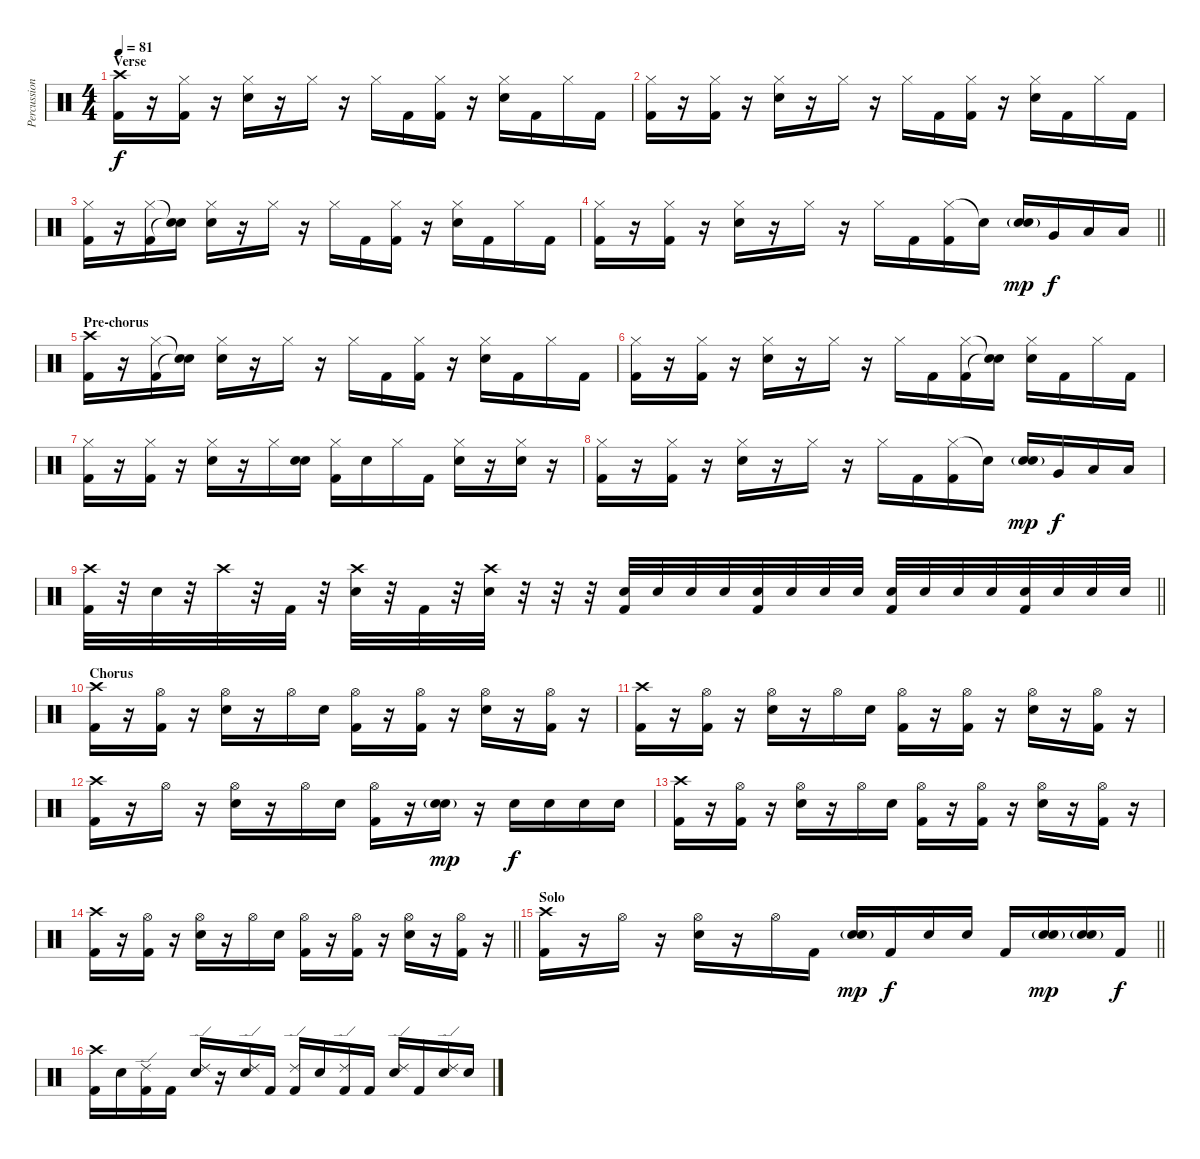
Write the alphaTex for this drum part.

\track ("Percussion" "Percussion") {instrument percussion}
\staff {score}
\articulation defaults
\ts (4 4)
\section ("" "Verse")
\tempo 81
\clef neutral
\ks c
("Crash high (hit)" "Kick (hit) 2").16{dy f} r.16 ("Hi-Hat (closed)" "Kick (hit) 2").16 r.16 ("Hi-Hat (closed)" "Snare (hit) 2").16 r.16 "Hi-Hat (closed)".16 r.16 "Hi-Hat (closed)".16 "Kick (hit) 2".16 ("Hi-Hat (closed)" "Kick (hit) 2").16 r.16 ("Hi-Hat (closed)" "Snare (hit) 2").16 "Kick (hit) 2".16 "Hi-Hat (closed)".16 "Kick (hit) 2".16 |
("Hi-Hat (closed)" "Kick (hit) 2").16 r.16 ("Hi-Hat (closed)" "Kick (hit) 2").16 r.16 ("Hi-Hat (closed)" "Snare (hit) 2").16 r.16 "Hi-Hat (closed)".16 r.16 "Hi-Hat (closed)".16 "Kick (hit) 2".16 ("Hi-Hat (closed)" "Kick (hit) 2").16 r.16 ("Hi-Hat (closed)" "Snare (hit) 2").16 "Kick (hit) 2".16 "Hi-Hat (closed)".16 "Kick (hit) 2".16 |
("Hi-Hat (closed)" "Kick (hit) 2").16 r.16 ("Hi-Hat (closed)" "Kick (hit) 2").16 ("Snare (hit)"{t} "Snare (hit)"{t}).16 ("Hi-Hat (closed)" "Snare (hit) 2").16 r.16 "Hi-Hat (closed)".16 r.16 "Hi-Hat (closed)".16 "Kick (hit) 2".16 ("Hi-Hat (closed)" "Kick (hit) 2").16 r.16 ("Hi-Hat (closed)" "Snare (hit) 2").16 "Kick (hit) 2".16 "Hi-Hat (closed)".16 "Kick (hit) 2".16 |
\barLineRight lightlight
("Hi-Hat (closed)" "Kick (hit) 2").16 r.16 ("Hi-Hat (closed)" "Kick (hit) 2").16 r.16 ("Hi-Hat (closed)" "Snare (hit) 2").16 r.16 "Hi-Hat (closed)".16 r.16 "Hi-Hat (closed)".16 "Kick (hit) 2".16 ("Hi-Hat (closed)" "Kick (hit) 2").16 "Snare (hit)"{t}.16 ("Snare (hit) 2"{g} "Snare (hit) 2").16{dy mp} "Very Low Tom (hit)".16{dy f} "Low Floor Tom (hit)".16 "Low Floor Tom (hit)".16 |
\section ("" "Pre-chorus")
("Crash high (hit)" "Kick (hit) 2").16 r.16 ("Hi-Hat (closed)" "Kick (hit) 2").16 ("Snare (hit)"{t} "Snare (hit)"{t}).16 ("Hi-Hat (closed)" "Snare (hit) 2").16 r.16 "Hi-Hat (closed)".16 r.16 "Hi-Hat (closed)".16 "Kick (hit) 2".16 ("Hi-Hat (closed)" "Kick (hit) 2").16 r.16 ("Hi-Hat (closed)" "Snare (hit) 2").16 "Kick (hit) 2".16 "Hi-Hat (closed)".16 "Kick (hit) 2".16 |
("Hi-Hat (closed)" "Kick (hit) 2").16 r.16 ("Hi-Hat (closed)" "Kick (hit) 2").16 r.16 ("Hi-Hat (closed)" "Snare (hit) 2").16 r.16 "Hi-Hat (closed)".16 r.16 "Hi-Hat (closed)".16 "Kick (hit) 2".16 ("Hi-Hat (closed)" "Kick (hit) 2").16 ("Snare (hit)"{t} "Snare (hit)"{t}).16 ("Hi-Hat (closed)" "Snare (hit) 2").16 "Kick (hit) 2".16 "Hi-Hat (closed)".16 "Kick (hit) 2".16 |
("Hi-Hat (closed)" "Kick (hit) 2").16 r.16 ("Hi-Hat (closed)" "Kick (hit) 2").16 r.16 ("Hi-Hat (closed)" "Snare (hit) 2").16 r.16 "Hi-Hat (closed)".16 ("Snare (hit) 2" "Snare (hit) 2").16 ("Hi-Hat (closed)" "Kick (hit) 2").16 "Snare (hit) 2".16 "Hi-Hat (closed)".16 "Kick (hit) 2".16 ("Hi-Hat (closed)" "Snare (hit) 2").16 r.16 ("Hi-Hat (closed)" "Snare (hit) 2").16 r.16 |
("Hi-Hat (closed)" "Kick (hit) 2").16 r.16 ("Hi-Hat (closed)" "Kick (hit) 2").16 r.16 ("Hi-Hat (closed)" "Snare (hit) 2").16 r.16 "Hi-Hat (closed)".16 r.16 "Hi-Hat (closed)".16 "Kick (hit) 2".16 ("Hi-Hat (closed)" "Kick (hit) 2").16 "Snare (hit)"{t}.16 ("Snare (hit) 2"{g} "Snare (hit) 2").16{dy mp} "Very Low Tom (hit)".16{dy f} "Low Floor Tom (hit)".16 "Low Floor Tom (hit)".16 |
\barLineRight lightlight
("Crash high (hit)" "Kick (hit) 2").32 r.32 "Snare (hit) 2".32 r.32 "Crash high (hit)".32 r.32 "Kick (hit) 2".32 r.32 ("Crash high (hit)" "Snare (hit) 2").32 r.32 "Kick (hit) 2".32 r.32 ("Crash high (hit)" "Snare (hit) 2").32 r.32 r.32 r.32 ("Snare (hit) 2" "Kick (hit) 2").32 "Snare (hit) 2".32 "Snare (hit) 2".32 "Snare (hit) 2".32 ("Snare (hit) 2" "Kick (hit) 2").32 "Snare (hit) 2".32 "Snare (hit) 2".32 "Snare (hit) 2".32 ("Snare (hit) 2" "Kick (hit) 2").32 "Snare (hit) 2".32 "Snare (hit) 2".32 "Snare (hit) 2".32 ("Snare (hit) 2" "Kick (hit) 2").32 "Snare (hit) 2".32 "Snare (hit) 2".32 "Snare (hit) 2".32 |
\section ("" "Chorus")
("Crash high (hit)" "Kick (hit) 2").16 r.16 ("Hi-Hat (open)" "Kick (hit) 2").16 r.16 ("Hi-Hat (open)" "Snare (hit) 2").16 r.16 "Hi-Hat (open)".16 "Snare (hit) 2".16 ("Hi-Hat (open)" "Kick (hit) 2").16 r.16 ("Hi-Hat (open)" "Kick (hit) 2").16 r.16 ("Hi-Hat (open)" "Snare (hit) 2").16 r.16 ("Hi-Hat (open)" "Kick (hit) 2").16 r.16 |
("Crash high (hit)" "Kick (hit) 2").16 r.16 ("Hi-Hat (open)" "Kick (hit) 2").16 r.16 ("Hi-Hat (open)" "Snare (hit) 2").16 r.16 "Hi-Hat (open)".16 "Snare (hit) 2".16 ("Hi-Hat (open)" "Kick (hit) 2").16 r.16 ("Hi-Hat (open)" "Kick (hit) 2").16 r.16 ("Hi-Hat (open)" "Snare (hit) 2").16 r.16 ("Hi-Hat (open)" "Kick (hit) 2").16 r.16 |
("Crash high (hit)" "Kick (hit) 2").16 r.16 "Hi-Hat (open)".16 r.16 ("Hi-Hat (open)" "Snare (hit) 2").16 r.16 "Hi-Hat (open)".16 "Snare (hit) 2".16 ("Hi-Hat (open)" "Kick (hit) 2").16 r.16 ("Snare (hit) 2"{g} "Snare (hit) 2").16{dy mp} r.16 "Snare (hit) 2".16{dy f} "Snare (hit) 2".16 "Snare (hit) 2".16 "Snare (hit) 2".16 |
("Crash high (hit)" "Kick (hit) 2").16 r.16 ("Hi-Hat (open)" "Kick (hit) 2").16 r.16 ("Hi-Hat (open)" "Snare (hit) 2").16 r.16 "Hi-Hat (open)".16 "Snare (hit) 2".16 ("Hi-Hat (open)" "Kick (hit) 2").16 r.16 ("Hi-Hat (open)" "Kick (hit) 2").16 r.16 ("Hi-Hat (open)" "Snare (hit) 2").16 r.16 ("Hi-Hat (open)" "Kick (hit) 2").16 r.16 |
\barLineRight lightlight
("Crash high (hit)" "Kick (hit) 2").16 r.16 ("Hi-Hat (open)" "Kick (hit) 2").16 r.16 ("Hi-Hat (open)" "Snare (hit) 2").16 r.16 "Hi-Hat (open)".16 "Snare (hit) 2".16 ("Hi-Hat (open)" "Kick (hit) 2").16 r.16 ("Hi-Hat (open)" "Kick (hit) 2").16 r.16 ("Hi-Hat (open)" "Snare (hit) 2").16 r.16 ("Hi-Hat (open)" "Kick (hit) 2").16 r.16 |
\section ("" "Solo")
\barLineRight lightlight
("Crash high (hit)" "Kick (hit) 2").16 r.16 "Hi-Hat (open)".16 r.16 ("Hi-Hat (open)" "Snare (hit) 2").16 r.16 "Hi-Hat (open)".16 "Kick (hit) 2".16 ("Snare (hit) 2"{g} "Snare (hit) 2").16{dy mp} "Kick (hit) 2".16{dy f} "Snare (hit) 2".16 "Snare (hit) 2".16 "Kick (hit) 2".16 ("Snare (hit) 2"{g} "Snare (hit) 2").16{dy mp} ("Snare (hit) 2"{g} "Snare (hit) 2").16 "Kick (hit) 2".16{dy f} |
("Crash high (hit)" "Kick (hit) 2").16 "Snare (hit) 2".16 ("Ride (edge) 2" "Kick (hit) 2").16 "Kick (hit) 2".16 ("Ride (edge) 2" "Snare (hit) 2").16 r.16 ("Ride (edge) 2" "Snare (hit) 2").16 "Kick (hit) 2".16 ("Ride (edge) 2" "Kick (hit) 2").16 "Snare (hit) 2".16 ("Ride (edge) 2" "Kick (hit) 2").16 "Kick (hit) 2".16 ("Ride (edge) 2" "Snare (hit) 2").16 "Kick (hit) 2".16 ("Ride (edge) 2" "Snare (hit) 2").16 "Snare (hit) 2".16
